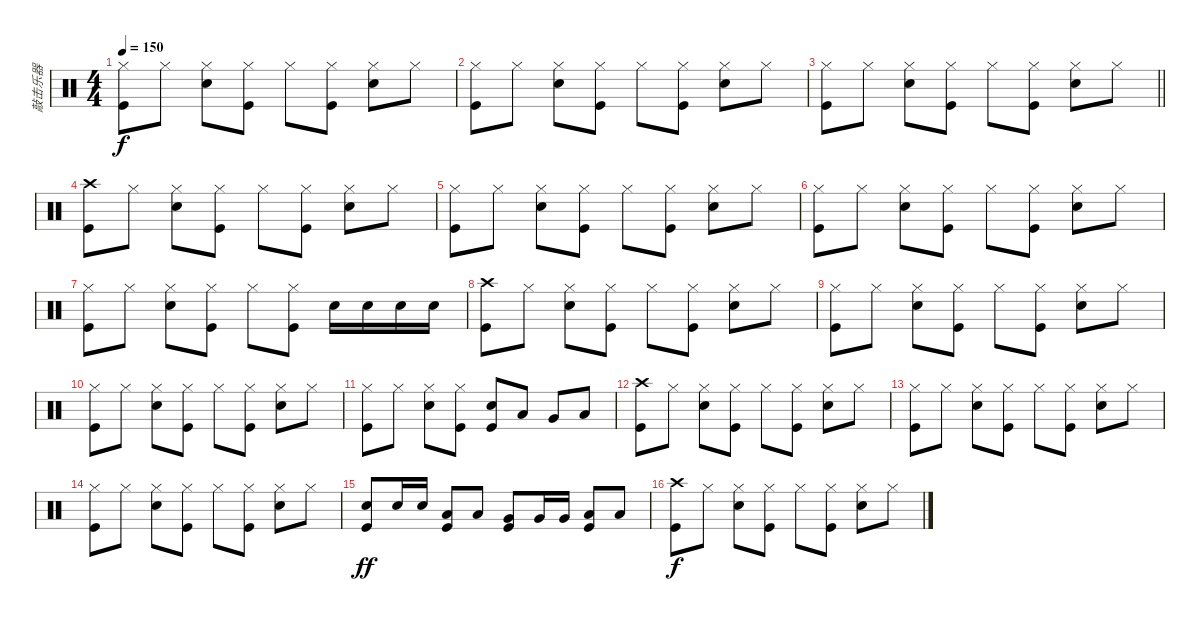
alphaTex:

\track ("敲击乐器" "敲击乐器") {instrument percussion}
\staff {score}
\articulation defaults
\ts (4 4)
\tempo 150
\clef neutral
\ks c
("Hi-Hat (closed)" "Kick (hit)").8{dy f} "Hi-Hat (closed)".8 ("Hi-Hat (closed)" "Snare (hit) 2").8 ("Hi-Hat (closed)" "Kick (hit)").8 "Hi-Hat (closed)".8 ("Hi-Hat (closed)" "Kick (hit)").8 ("Hi-Hat (closed)" "Snare (hit) 2").8 "Hi-Hat (closed)".8 |
("Hi-Hat (closed)" "Kick (hit)").8 "Hi-Hat (closed)".8 ("Hi-Hat (closed)" "Snare (hit) 2").8 ("Hi-Hat (closed)" "Kick (hit)").8 "Hi-Hat (closed)".8 ("Hi-Hat (closed)" "Kick (hit)").8 ("Hi-Hat (closed)" "Snare (hit) 2").8 "Hi-Hat (closed)".8 |
\barLineRight lightlight
("Hi-Hat (closed)" "Kick (hit)").8 "Hi-Hat (closed)".8 ("Hi-Hat (closed)" "Snare (hit) 2").8 ("Hi-Hat (closed)" "Kick (hit)").8 "Hi-Hat (closed)".8 ("Hi-Hat (closed)" "Kick (hit)").8 ("Hi-Hat (closed)" "Snare (hit) 2").8 "Hi-Hat (closed)".8 |
("Crash high (hit)" "Kick (hit)").8 "Hi-Hat (closed)".8 ("Hi-Hat (closed)" "Snare (hit) 2").8 ("Hi-Hat (closed)" "Kick (hit)").8 "Hi-Hat (closed)".8 ("Hi-Hat (closed)" "Kick (hit)").8 ("Hi-Hat (closed)" "Snare (hit) 2").8 "Hi-Hat (closed)".8 |
("Hi-Hat (closed)" "Kick (hit)").8 "Hi-Hat (closed)".8 ("Hi-Hat (closed)" "Snare (hit) 2").8 ("Hi-Hat (closed)" "Kick (hit)").8 "Hi-Hat (closed)".8 ("Hi-Hat (closed)" "Kick (hit)").8 ("Hi-Hat (closed)" "Snare (hit) 2").8 "Hi-Hat (closed)".8 |
("Hi-Hat (closed)" "Kick (hit)").8 "Hi-Hat (closed)".8 ("Hi-Hat (closed)" "Snare (hit) 2").8 ("Hi-Hat (closed)" "Kick (hit)").8 "Hi-Hat (closed)".8 ("Hi-Hat (closed)" "Kick (hit)").8 ("Hi-Hat (closed)" "Snare (hit) 2").8 "Hi-Hat (closed)".8 |
("Hi-Hat (closed)" "Kick (hit)").8 "Hi-Hat (closed)".8 ("Hi-Hat (closed)" "Snare (hit) 2").8 ("Hi-Hat (closed)" "Kick (hit)").8 "Hi-Hat (closed)".8 ("Hi-Hat (closed)" "Kick (hit)").8 "Snare (hit) 2".16 "Snare (hit) 2".16 "Snare (hit) 2".16 "Snare (hit) 2".16 |
("Crash high (hit)" "Kick (hit)").8 "Hi-Hat (closed)".8 ("Hi-Hat (closed)" "Snare (hit) 2").8 ("Hi-Hat (closed)" "Kick (hit)").8 "Hi-Hat (closed)".8 ("Hi-Hat (closed)" "Kick (hit)").8 ("Hi-Hat (closed)" "Snare (hit) 2").8 "Hi-Hat (closed)".8 |
("Hi-Hat (closed)" "Kick (hit)").8 "Hi-Hat (closed)".8 ("Hi-Hat (closed)" "Snare (hit) 2").8 ("Hi-Hat (closed)" "Kick (hit)").8 "Hi-Hat (closed)".8 ("Hi-Hat (closed)" "Kick (hit)").8 ("Hi-Hat (closed)" "Snare (hit) 2").8 "Hi-Hat (closed)".8 |
("Hi-Hat (closed)" "Kick (hit)").8 "Hi-Hat (closed)".8 ("Hi-Hat (closed)" "Snare (hit) 2").8 ("Hi-Hat (closed)" "Kick (hit)").8 "Hi-Hat (closed)".8 ("Hi-Hat (closed)" "Kick (hit)").8 ("Hi-Hat (closed)" "Snare (hit) 2").8 "Hi-Hat (closed)".8 |
("Hi-Hat (closed)" "Kick (hit)").8 "Hi-Hat (closed)".8 ("Hi-Hat (closed)" "Snare (hit) 2").8 ("Hi-Hat (closed)" "Kick (hit)").8 ("Snare (hit) 2" "Kick (hit)").8 "Low Tom (hit)".8 "Very Low Tom (hit)".8 "Low Floor Tom (hit)".8 |
("Crash high (hit)" "Kick (hit)").8 "Hi-Hat (closed)".8 ("Hi-Hat (closed)" "Snare (hit) 2").8 ("Hi-Hat (closed)" "Kick (hit)").8 "Hi-Hat (closed)".8 ("Hi-Hat (closed)" "Kick (hit)").8 ("Hi-Hat (closed)" "Snare (hit) 2").8 "Hi-Hat (closed)".8 |
("Hi-Hat (closed)" "Kick (hit)").8 "Hi-Hat (closed)".8 ("Hi-Hat (closed)" "Snare (hit) 2").8 ("Hi-Hat (closed)" "Kick (hit)").8 "Hi-Hat (closed)".8 ("Hi-Hat (closed)" "Kick (hit)").8 ("Hi-Hat (closed)" "Snare (hit) 2").8 "Hi-Hat (closed)".8 |
("Hi-Hat (closed)" "Kick (hit)").8 "Hi-Hat (closed)".8 ("Hi-Hat (closed)" "Snare (hit) 2").8 ("Hi-Hat (closed)" "Kick (hit)").8 "Hi-Hat (closed)".8 ("Hi-Hat (closed)" "Kick (hit)").8 ("Hi-Hat (closed)" "Snare (hit) 2").8 "Hi-Hat (closed)".8 |
("Snare (hit) 2" "Kick (hit)").8{dy ff} "Snare (hit) 2".16 "Snare (hit) 2".16 ("Low Tom (hit)" "Kick (hit)").8 "Low Tom (hit)".8 ("Very Low Tom (hit)" "Kick (hit)").8 "Very Low Tom (hit)".16 "Very Low Tom (hit)".16 ("Low Floor Tom (hit)" "Kick (hit)").8 "Low Floor Tom (hit)".8 |
("Crash high (hit)" "Kick (hit)").8{dy f} "Hi-Hat (closed)".8 ("Hi-Hat (closed)" "Snare (hit) 2").8 ("Hi-Hat (closed)" "Kick (hit)").8 "Hi-Hat (closed)".8 ("Hi-Hat (closed)" "Kick (hit)").8 ("Hi-Hat (closed)" "Snare (hit) 2").8 "Hi-Hat (closed)".8
